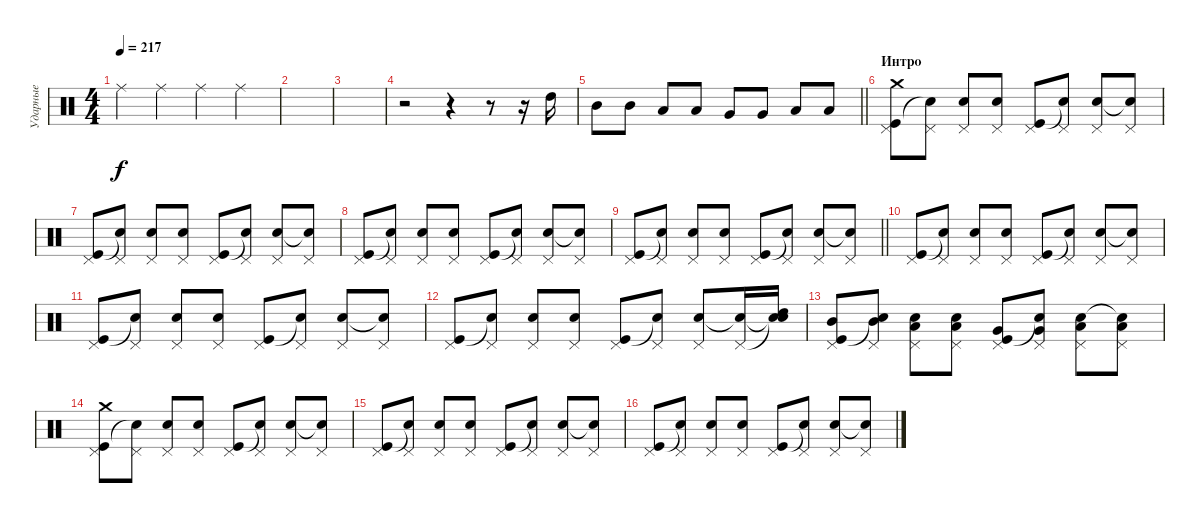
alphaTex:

\track ("Ударные" "Ударные") {instrument percussion}
\staff {score}
\articulation defaults
\ts (4 4)
\tempo 217
\clef neutral
\ks c "Ride (middle)".4{dy f} "Ride (middle)".4 "Ride (middle)".4 "Ride (middle)".4
|
|
|
r.2 r.4 r.8 r.16 "High Tom (hit)".16 |
\barLineRight lightlight "Mid Tom (hit)".8 "Mid Tom (hit)".8 "Low Tom (hit)".8 "Low Tom (hit)".8 "Very Low Tom (hit)".8 "Very Low Tom (hit)".8 "Low Floor Tom (hit)".8 "Low Floor Tom (hit)".8
|
\section ("" "Интро")
("Pedal Hi-Hat (hit)" "Kick (hit)" "Crash medium (hit)").8 ("Pedal Hi-Hat (hit)" "Snare (hit)"{t}).8 ("Pedal Hi-Hat (hit)" "Snare (hit) 2").8 ("Pedal Hi-Hat (hit)" "Snare (hit) 2").8 ("Pedal Hi-Hat (hit)" "Kick (hit)").8 ("Pedal Hi-Hat (hit)" "Snare (hit)"{t}).8 ("Pedal Hi-Hat (hit)" "Snare (hit) 2").8 ("Pedal Hi-Hat (hit)" "Snare (hit)"{t}).8 |
("Pedal Hi-Hat (hit)" "Kick (hit)").8 ("Pedal Hi-Hat (hit)" "Snare (hit)"{t}).8 ("Pedal Hi-Hat (hit)" "Snare (hit) 2").8 ("Pedal Hi-Hat (hit)" "Snare (hit) 2").8 ("Pedal Hi-Hat (hit)" "Kick (hit)").8 ("Pedal Hi-Hat (hit)" "Snare (hit)"{t}).8 ("Pedal Hi-Hat (hit)" "Snare (hit) 2").8 ("Pedal Hi-Hat (hit)" "Snare (hit)"{t}).8 |
("Pedal Hi-Hat (hit)" "Kick (hit)").8 ("Pedal Hi-Hat (hit)" "Snare (hit)"{t}).8 ("Pedal Hi-Hat (hit)" "Snare (hit) 2").8 ("Pedal Hi-Hat (hit)" "Snare (hit) 2").8 ("Pedal Hi-Hat (hit)" "Kick (hit)").8 ("Pedal Hi-Hat (hit)" "Snare (hit)"{t}).8 ("Pedal Hi-Hat (hit)" "Snare (hit) 2").8 ("Pedal Hi-Hat (hit)" "Snare (hit)"{t}).8 |
\barLineRight lightlight
("Pedal Hi-Hat (hit)" "Kick (hit)").8 ("Pedal Hi-Hat (hit)" "Snare (hit)"{t}).8 ("Pedal Hi-Hat (hit)" "Snare (hit) 2").8 ("Pedal Hi-Hat (hit)" "Snare (hit) 2").8 ("Pedal Hi-Hat (hit)" "Kick (hit)").8 ("Pedal Hi-Hat (hit)" "Snare (hit)"{t}).8 ("Pedal Hi-Hat (hit)" "Snare (hit) 2").8 ("Pedal Hi-Hat (hit)" "Snare (hit)"{t}).8 |
("Pedal Hi-Hat (hit)" "Kick (hit)").8 ("Pedal Hi-Hat (hit)" "Snare (hit)"{t}).8 ("Pedal Hi-Hat (hit)" "Snare (hit) 2").8 ("Pedal Hi-Hat (hit)" "Snare (hit) 2").8 ("Pedal Hi-Hat (hit)" "Kick (hit)").8 ("Pedal Hi-Hat (hit)" "Snare (hit)"{t}).8 ("Pedal Hi-Hat (hit)" "Snare (hit) 2").8 ("Pedal Hi-Hat (hit)" "Snare (hit)"{t}).8 |
("Pedal Hi-Hat (hit)" "Kick (hit)").8 ("Pedal Hi-Hat (hit)" "Snare (hit)"{t}).8 ("Pedal Hi-Hat (hit)" "Snare (hit) 2").8 ("Pedal Hi-Hat (hit)" "Snare (hit) 2").8 ("Pedal Hi-Hat (hit)" "Kick (hit)").8 ("Pedal Hi-Hat (hit)" "Snare (hit)"{t}).8 ("Pedal Hi-Hat (hit)" "Snare (hit) 2").8 ("Pedal Hi-Hat (hit)" "Snare (hit)"{t}).8 |
("Pedal Hi-Hat (hit)" "Kick (hit)").8 ("Pedal Hi-Hat (hit)" "Snare (hit)"{t}).8 ("Pedal Hi-Hat (hit)" "Snare (hit) 2").8 ("Pedal Hi-Hat (hit)" "Snare (hit) 2").8 ("Pedal Hi-Hat (hit)" "Kick (hit)").8 ("Pedal Hi-Hat (hit)" "Snare (hit)"{t}).8 ("Pedal Hi-Hat (hit)" "Snare (hit) 2").8 ("Pedal Hi-Hat (hit)" "Snare (hit)"{t}).16 ("Snare (hit)"{t} "Snare (hit)"{t} "High Tom (hit)").16 |
("Pedal Hi-Hat (hit)" "Kick (hit)" "Mid Tom (hit)").8 ("Pedal Hi-Hat (hit)" "Snare (hit)"{t} "Mid Tom (hit)").8 ("Pedal Hi-Hat (hit)" "Snare (hit) 2" "Low Tom (hit)").8 ("Pedal Hi-Hat (hit)" "Snare (hit) 2" "Low Tom (hit)").8 ("Pedal Hi-Hat (hit)" "Kick (hit)" "Very Low Tom (hit)").8 ("Pedal Hi-Hat (hit)" "Snare (hit)"{t} "Very Low Tom (hit)").8 ("Pedal Hi-Hat (hit)" "Snare (hit) 2" "Low Floor Tom (hit)").8 ("Pedal Hi-Hat (hit)" "Snare (hit)"{t} "Low Floor Tom (hit)").8 |
("Pedal Hi-Hat (hit)" "Kick (hit)" "Crash medium (hit)").8 ("Pedal Hi-Hat (hit)" "Snare (hit)"{t}).8 ("Pedal Hi-Hat (hit)" "Snare (hit) 2").8 ("Pedal Hi-Hat (hit)" "Snare (hit) 2").8 ("Pedal Hi-Hat (hit)" "Kick (hit)").8 ("Pedal Hi-Hat (hit)" "Snare (hit)"{t}).8 ("Pedal Hi-Hat (hit)" "Snare (hit) 2").8 ("Pedal Hi-Hat (hit)" "Snare (hit)"{t}).8 |
("Pedal Hi-Hat (hit)" "Kick (hit)").8 ("Pedal Hi-Hat (hit)" "Snare (hit)"{t}).8 ("Pedal Hi-Hat (hit)" "Snare (hit) 2").8 ("Pedal Hi-Hat (hit)" "Snare (hit) 2").8 ("Pedal Hi-Hat (hit)" "Kick (hit)").8 ("Pedal Hi-Hat (hit)" "Snare (hit)"{t}).8 ("Pedal Hi-Hat (hit)" "Snare (hit) 2").8 ("Pedal Hi-Hat (hit)" "Snare (hit)"{t}).8 |
("Pedal Hi-Hat (hit)" "Kick (hit)").8 ("Pedal Hi-Hat (hit)" "Snare (hit)"{t}).8 ("Pedal Hi-Hat (hit)" "Snare (hit) 2").8 ("Pedal Hi-Hat (hit)" "Snare (hit) 2").8 ("Pedal Hi-Hat (hit)" "Kick (hit)").8 ("Pedal Hi-Hat (hit)" "Snare (hit)"{t}).8 ("Pedal Hi-Hat (hit)" "Snare (hit) 2").8 ("Pedal Hi-Hat (hit)" "Snare (hit)"{t}).8
